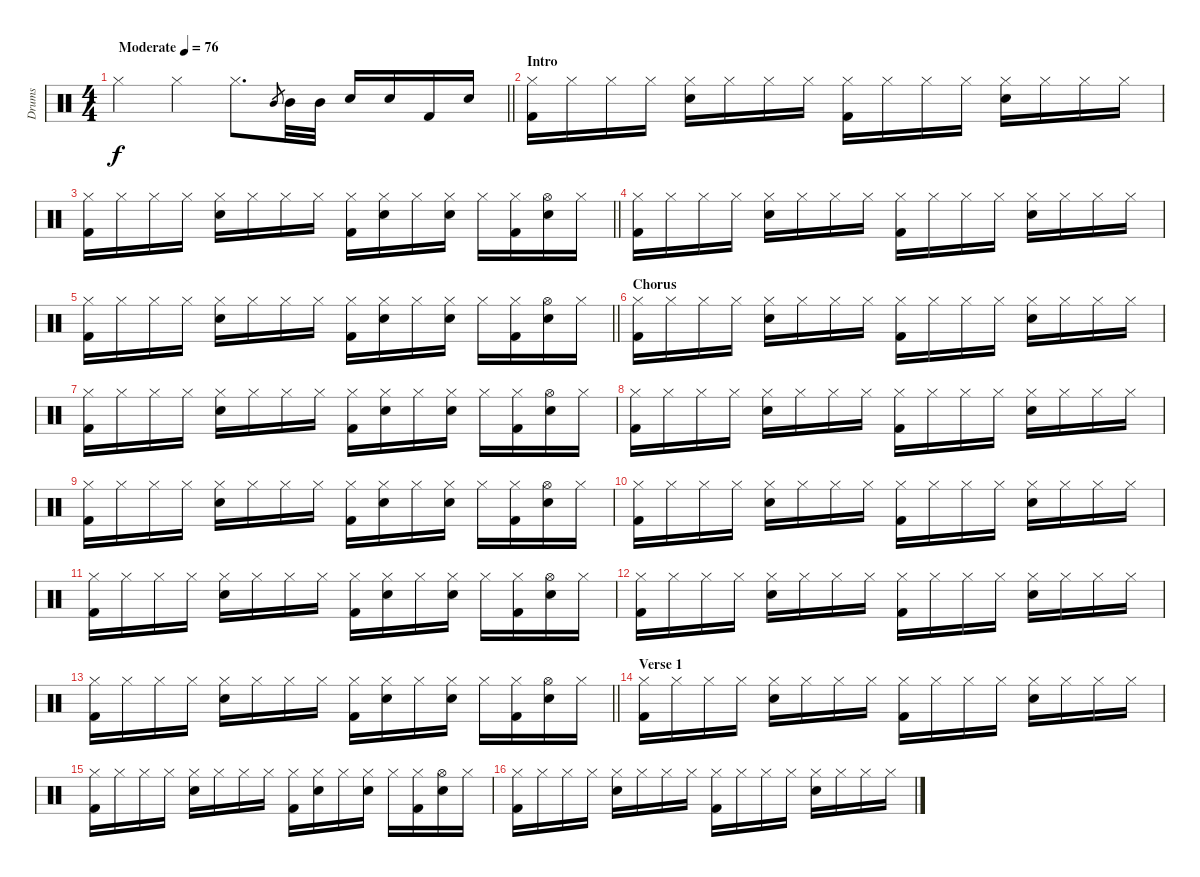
\track ("Drums" "Drums") {instrument percussion}
\staff {score}
\articulation defaults
\ts (4 4)
\tempo (76 "Moderate")
\clef neutral
\barLineRight lightlight
\ks c "Hi-Hat (closed)".4{dy f} "Hi-Hat (closed)".4 "Hi-Hat (closed)".8{d} "Mid Tom (hit)".8{gr} "Mid Tom (hit)".32 "Mid Tom (hit)".32 "Snare (hit) 2".16 "Snare (hit) 2".16 "Kick (hit) 2".16 "Snare (hit) 2".16
|
\section ("" "Intro")
("Hi-Hat (closed)" "Kick (hit) 2").16 "Hi-Hat (closed)".16 "Hi-Hat (closed)".16 "Hi-Hat (closed)".16 ("Hi-Hat (closed)" "Snare (hit) 2").16 "Hi-Hat (closed)".16 "Hi-Hat (closed)".16 "Hi-Hat (closed)".16 ("Hi-Hat (closed)" "Kick (hit) 2").16 "Hi-Hat (closed)".16 "Hi-Hat (closed)".16 "Hi-Hat (closed)".16 ("Hi-Hat (closed)" "Snare (hit) 2").16 "Hi-Hat (closed)".16 "Hi-Hat (closed)".16 "Hi-Hat (closed)".16 |
\barLineRight lightlight
("Hi-Hat (closed)" "Kick (hit) 2").16 "Hi-Hat (closed)".16 "Hi-Hat (closed)".16 "Hi-Hat (closed)".16 ("Hi-Hat (closed)" "Snare (hit) 2").16 "Hi-Hat (closed)".16 "Hi-Hat (closed)".16 "Hi-Hat (closed)".16 ("Hi-Hat (closed)" "Kick (hit) 2").16 ("Hi-Hat (closed)" "Snare (hit) 2").16 "Hi-Hat (closed)".16 ("Hi-Hat (closed)" "Snare (hit) 2").16 "Hi-Hat (closed)".16 ("Hi-Hat (closed)" "Kick (hit) 2").16 ("Hi-Hat (open)" "Snare (hit) 2").16 "Hi-Hat (closed)".16 |
("Hi-Hat (closed)" "Kick (hit) 2").16 "Hi-Hat (closed)".16 "Hi-Hat (closed)".16 "Hi-Hat (closed)".16 ("Hi-Hat (closed)" "Snare (hit) 2").16 "Hi-Hat (closed)".16 "Hi-Hat (closed)".16 "Hi-Hat (closed)".16 ("Hi-Hat (closed)" "Kick (hit) 2").16 "Hi-Hat (closed)".16 "Hi-Hat (closed)".16 "Hi-Hat (closed)".16 ("Hi-Hat (closed)" "Snare (hit) 2").16 "Hi-Hat (closed)".16 "Hi-Hat (closed)".16 "Hi-Hat (closed)".16 |
\barLineRight lightlight
("Hi-Hat (closed)" "Kick (hit) 2").16 "Hi-Hat (closed)".16 "Hi-Hat (closed)".16 "Hi-Hat (closed)".16 ("Hi-Hat (closed)" "Snare (hit) 2").16 "Hi-Hat (closed)".16 "Hi-Hat (closed)".16 "Hi-Hat (closed)".16 ("Hi-Hat (closed)" "Kick (hit) 2").16 ("Hi-Hat (closed)" "Snare (hit) 2").16 "Hi-Hat (closed)".16 ("Hi-Hat (closed)" "Snare (hit) 2").16 "Hi-Hat (closed)".16 ("Hi-Hat (closed)" "Kick (hit) 2").16 ("Hi-Hat (open)" "Snare (hit) 2").16 "Hi-Hat (closed)".16 |
\section ("" "Chorus")
("Hi-Hat (closed)" "Kick (hit) 2").16 "Hi-Hat (closed)".16 "Hi-Hat (closed)".16 "Hi-Hat (closed)".16 ("Hi-Hat (closed)" "Snare (hit) 2").16 "Hi-Hat (closed)".16 "Hi-Hat (closed)".16 "Hi-Hat (closed)".16 ("Hi-Hat (closed)" "Kick (hit) 2").16 "Hi-Hat (closed)".16 "Hi-Hat (closed)".16 "Hi-Hat (closed)".16 ("Hi-Hat (closed)" "Snare (hit) 2").16 "Hi-Hat (closed)".16 "Hi-Hat (closed)".16 "Hi-Hat (closed)".16 |
("Hi-Hat (closed)" "Kick (hit) 2").16 "Hi-Hat (closed)".16 "Hi-Hat (closed)".16 "Hi-Hat (closed)".16 ("Hi-Hat (closed)" "Snare (hit) 2").16 "Hi-Hat (closed)".16 "Hi-Hat (closed)".16 "Hi-Hat (closed)".16 ("Hi-Hat (closed)" "Kick (hit) 2").16 ("Hi-Hat (closed)" "Snare (hit) 2").16 "Hi-Hat (closed)".16 ("Hi-Hat (closed)" "Snare (hit) 2").16 "Hi-Hat (closed)".16 ("Hi-Hat (closed)" "Kick (hit) 2").16 ("Hi-Hat (open)" "Snare (hit) 2").16 "Hi-Hat (closed)".16 |
("Hi-Hat (closed)" "Kick (hit) 2").16 "Hi-Hat (closed)".16 "Hi-Hat (closed)".16 "Hi-Hat (closed)".16 ("Hi-Hat (closed)" "Snare (hit) 2").16 "Hi-Hat (closed)".16 "Hi-Hat (closed)".16 "Hi-Hat (closed)".16 ("Hi-Hat (closed)" "Kick (hit) 2").16 "Hi-Hat (closed)".16 "Hi-Hat (closed)".16 "Hi-Hat (closed)".16 ("Hi-Hat (closed)" "Snare (hit) 2").16 "Hi-Hat (closed)".16 "Hi-Hat (closed)".16 "Hi-Hat (closed)".16 |
("Hi-Hat (closed)" "Kick (hit) 2").16 "Hi-Hat (closed)".16 "Hi-Hat (closed)".16 "Hi-Hat (closed)".16 ("Hi-Hat (closed)" "Snare (hit) 2").16 "Hi-Hat (closed)".16 "Hi-Hat (closed)".16 "Hi-Hat (closed)".16 ("Hi-Hat (closed)" "Kick (hit) 2").16 ("Hi-Hat (closed)" "Snare (hit) 2").16 "Hi-Hat (closed)".16 ("Hi-Hat (closed)" "Snare (hit) 2").16 "Hi-Hat (closed)".16 ("Hi-Hat (closed)" "Kick (hit) 2").16 ("Hi-Hat (open)" "Snare (hit) 2").16 "Hi-Hat (closed)".16 |
("Hi-Hat (closed)" "Kick (hit) 2").16 "Hi-Hat (closed)".16 "Hi-Hat (closed)".16 "Hi-Hat (closed)".16 ("Hi-Hat (closed)" "Snare (hit) 2").16 "Hi-Hat (closed)".16 "Hi-Hat (closed)".16 "Hi-Hat (closed)".16 ("Hi-Hat (closed)" "Kick (hit) 2").16 "Hi-Hat (closed)".16 "Hi-Hat (closed)".16 "Hi-Hat (closed)".16 ("Hi-Hat (closed)" "Snare (hit) 2").16 "Hi-Hat (closed)".16 "Hi-Hat (closed)".16 "Hi-Hat (closed)".16 |
("Hi-Hat (closed)" "Kick (hit) 2").16 "Hi-Hat (closed)".16 "Hi-Hat (closed)".16 "Hi-Hat (closed)".16 ("Hi-Hat (closed)" "Snare (hit) 2").16 "Hi-Hat (closed)".16 "Hi-Hat (closed)".16 "Hi-Hat (closed)".16 ("Hi-Hat (closed)" "Kick (hit) 2").16 ("Hi-Hat (closed)" "Snare (hit) 2").16 "Hi-Hat (closed)".16 ("Hi-Hat (closed)" "Snare (hit) 2").16 "Hi-Hat (closed)".16 ("Hi-Hat (closed)" "Kick (hit) 2").16 ("Hi-Hat (open)" "Snare (hit) 2").16 "Hi-Hat (closed)".16 |
("Hi-Hat (closed)" "Kick (hit) 2").16 "Hi-Hat (closed)".16 "Hi-Hat (closed)".16 "Hi-Hat (closed)".16 ("Hi-Hat (closed)" "Snare (hit) 2").16 "Hi-Hat (closed)".16 "Hi-Hat (closed)".16 "Hi-Hat (closed)".16 ("Hi-Hat (closed)" "Kick (hit) 2").16 "Hi-Hat (closed)".16 "Hi-Hat (closed)".16 "Hi-Hat (closed)".16 ("Hi-Hat (closed)" "Snare (hit) 2").16 "Hi-Hat (closed)".16 "Hi-Hat (closed)".16 "Hi-Hat (closed)".16 |
\barLineRight lightlight
("Hi-Hat (closed)" "Kick (hit) 2").16 "Hi-Hat (closed)".16 "Hi-Hat (closed)".16 "Hi-Hat (closed)".16 ("Hi-Hat (closed)" "Snare (hit) 2").16 "Hi-Hat (closed)".16 "Hi-Hat (closed)".16 "Hi-Hat (closed)".16 ("Hi-Hat (closed)" "Kick (hit) 2").16 ("Hi-Hat (closed)" "Snare (hit) 2").16 "Hi-Hat (closed)".16 ("Hi-Hat (closed)" "Snare (hit) 2").16 "Hi-Hat (closed)".16 ("Hi-Hat (closed)" "Kick (hit) 2").16 ("Hi-Hat (open)" "Snare (hit) 2").16 "Hi-Hat (closed)".16 |
\section ("" "Verse 1")
("Hi-Hat (closed)" "Kick (hit) 2").16 "Hi-Hat (closed)".16 "Hi-Hat (closed)".16 "Hi-Hat (closed)".16 ("Hi-Hat (closed)" "Snare (hit) 2").16 "Hi-Hat (closed)".16 "Hi-Hat (closed)".16 "Hi-Hat (closed)".16 ("Hi-Hat (closed)" "Kick (hit) 2").16 "Hi-Hat (closed)".16 "Hi-Hat (closed)".16 "Hi-Hat (closed)".16 ("Hi-Hat (closed)" "Snare (hit) 2").16 "Hi-Hat (closed)".16 "Hi-Hat (closed)".16 "Hi-Hat (closed)".16 |
("Hi-Hat (closed)" "Kick (hit) 2").16 "Hi-Hat (closed)".16 "Hi-Hat (closed)".16 "Hi-Hat (closed)".16 ("Hi-Hat (closed)" "Snare (hit) 2").16 "Hi-Hat (closed)".16 "Hi-Hat (closed)".16 "Hi-Hat (closed)".16 ("Hi-Hat (closed)" "Kick (hit) 2").16 ("Hi-Hat (closed)" "Snare (hit) 2").16 "Hi-Hat (closed)".16 ("Hi-Hat (closed)" "Snare (hit) 2").16 "Hi-Hat (closed)".16 ("Hi-Hat (closed)" "Kick (hit) 2").16 ("Hi-Hat (open)" "Snare (hit) 2").16 "Hi-Hat (closed)".16 |
("Hi-Hat (closed)" "Kick (hit) 2").16 "Hi-Hat (closed)".16 "Hi-Hat (closed)".16 "Hi-Hat (closed)".16 ("Hi-Hat (closed)" "Snare (hit) 2").16 "Hi-Hat (closed)".16 "Hi-Hat (closed)".16 "Hi-Hat (closed)".16 ("Hi-Hat (closed)" "Kick (hit) 2").16 "Hi-Hat (closed)".16 "Hi-Hat (closed)".16 "Hi-Hat (closed)".16 ("Hi-Hat (closed)" "Snare (hit) 2").16 "Hi-Hat (closed)".16 "Hi-Hat (closed)".16 "Hi-Hat (closed)".16
